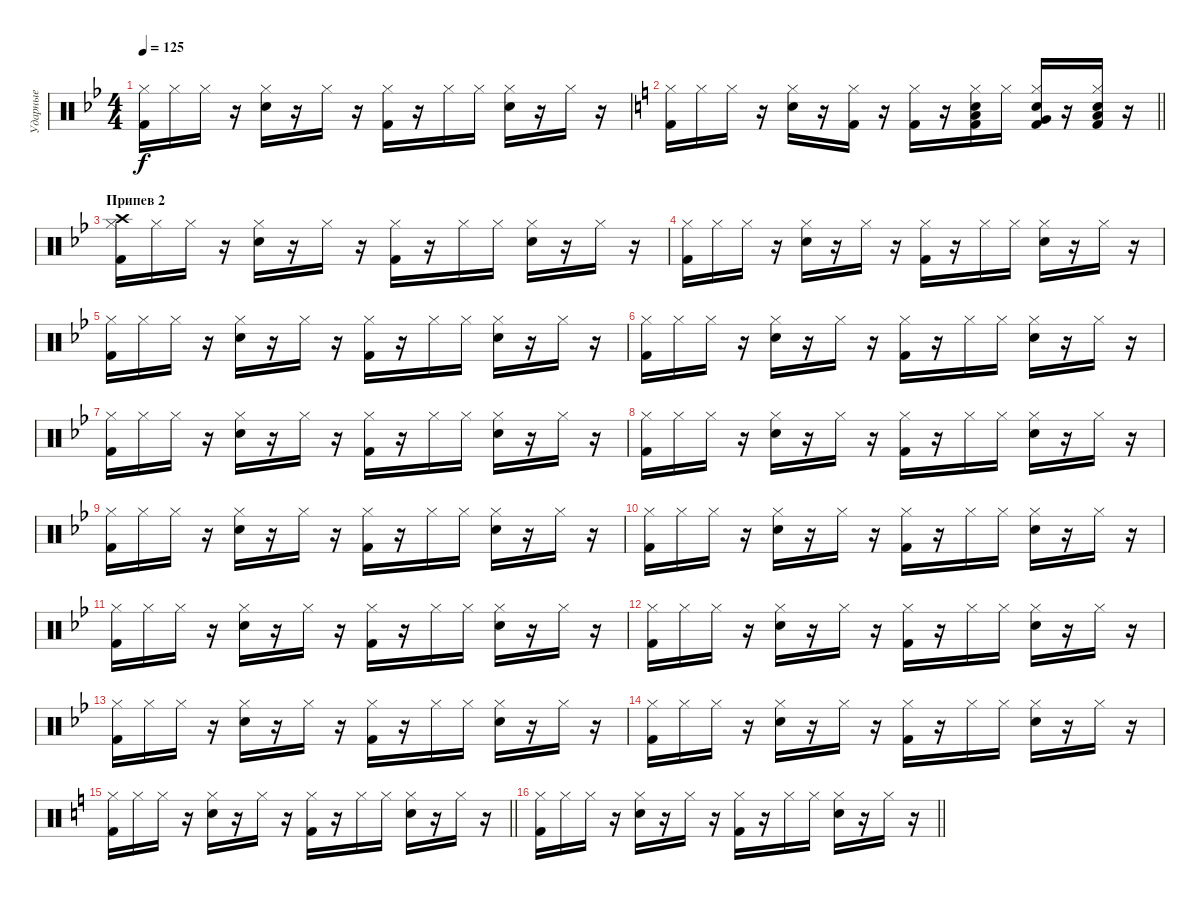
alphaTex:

\track ("Ударные" "Ударные") {instrument percussion}
\staff {score}
\articulation defaults
\ts (4 4)
\tempo 125
\clef neutral
\ks bb
("Kick (hit) 2" "Hi-Hat (closed)").16{dy f} "Hi-Hat (closed)".16 "Hi-Hat (closed)".16 r.16 ("Snare (hit) 2" "Hi-Hat (closed)").16 r.16 "Hi-Hat (closed)".16 r.16 ("Kick (hit) 2" "Hi-Hat (closed)").16 r.16 "Hi-Hat (closed)".16 "Hi-Hat (closed)".16 ("Snare (hit) 2" "Hi-Hat (closed)").16 r.16 "Hi-Hat (closed)".16 r.16 |
\barLineRight lightlight
\ks c
("Kick (hit) 2" "Hi-Hat (closed)").16 "Hi-Hat (closed)".16 "Hi-Hat (closed)".16 r.16 ("Snare (hit) 2" "Hi-Hat (closed)").16 r.16 ("Kick (hit) 2" "Hi-Hat (closed)").16 r.16 ("Kick (hit) 2" "Hi-Hat (closed)").16 r.16 ("Kick (hit) 2" "Snare (hit) 2" "Low Floor Tom (hit)" "Hi-Hat (closed)").16 "Hi-Hat (closed)".16 ("Kick (hit) 2" "Snare (hit) 2" "Very Low Tom (hit)" "Hi-Hat (closed)").16 r.16 ("Kick (hit) 2" "Snare (hit) 2" "Low Tom (hit)" "Hi-Hat (closed)").16 r.16 |
\section ("" "Припев 2")
\ks bb
("Kick (hit) 2" "Crash high (hit)" "Hi-Hat (closed)").16 "Hi-Hat (closed)".16 "Hi-Hat (closed)".16 r.16 ("Snare (hit) 2" "Hi-Hat (closed)").16 r.16 "Hi-Hat (closed)".16 r.16 ("Kick (hit) 2" "Hi-Hat (closed)").16 r.16 "Hi-Hat (closed)".16 "Hi-Hat (closed)".16 ("Snare (hit) 2" "Hi-Hat (closed)").16 r.16 "Hi-Hat (closed)".16 r.16 |
("Kick (hit) 2" "Hi-Hat (closed)").16 "Hi-Hat (closed)".16 "Hi-Hat (closed)".16 r.16 ("Snare (hit) 2" "Hi-Hat (closed)").16 r.16 "Hi-Hat (closed)".16 r.16 ("Kick (hit) 2" "Hi-Hat (closed)").16 r.16 "Hi-Hat (closed)".16 "Hi-Hat (closed)".16 ("Snare (hit) 2" "Hi-Hat (closed)").16 r.16 "Hi-Hat (closed)".16 r.16 |
("Kick (hit) 2" "Hi-Hat (closed)").16 "Hi-Hat (closed)".16 "Hi-Hat (closed)".16 r.16 ("Snare (hit) 2" "Hi-Hat (closed)").16 r.16 "Hi-Hat (closed)".16 r.16 ("Kick (hit) 2" "Hi-Hat (closed)").16 r.16 "Hi-Hat (closed)".16 "Hi-Hat (closed)".16 ("Snare (hit) 2" "Hi-Hat (closed)").16 r.16 "Hi-Hat (closed)".16 r.16 |
("Kick (hit) 2" "Hi-Hat (closed)").16 "Hi-Hat (closed)".16 "Hi-Hat (closed)".16 r.16 ("Snare (hit) 2" "Hi-Hat (closed)").16 r.16 "Hi-Hat (closed)".16 r.16 ("Kick (hit) 2" "Hi-Hat (closed)").16 r.16 "Hi-Hat (closed)".16 "Hi-Hat (closed)".16 ("Snare (hit) 2" "Hi-Hat (closed)").16 r.16 "Hi-Hat (closed)".16 r.16 |
("Kick (hit) 2" "Hi-Hat (closed)").16 "Hi-Hat (closed)".16 "Hi-Hat (closed)".16 r.16 ("Snare (hit) 2" "Hi-Hat (closed)").16 r.16 "Hi-Hat (closed)".16 r.16 ("Kick (hit) 2" "Hi-Hat (closed)").16 r.16 "Hi-Hat (closed)".16 "Hi-Hat (closed)".16 ("Snare (hit) 2" "Hi-Hat (closed)").16 r.16 "Hi-Hat (closed)".16 r.16 |
("Kick (hit) 2" "Hi-Hat (closed)").16 "Hi-Hat (closed)".16 "Hi-Hat (closed)".16 r.16 ("Snare (hit) 2" "Hi-Hat (closed)").16 r.16 "Hi-Hat (closed)".16 r.16 ("Kick (hit) 2" "Hi-Hat (closed)").16 r.16 "Hi-Hat (closed)".16 "Hi-Hat (closed)".16 ("Snare (hit) 2" "Hi-Hat (closed)").16 r.16 "Hi-Hat (closed)".16 r.16 |
("Kick (hit) 2" "Hi-Hat (closed)").16 "Hi-Hat (closed)".16 "Hi-Hat (closed)".16 r.16 ("Snare (hit) 2" "Hi-Hat (closed)").16 r.16 "Hi-Hat (closed)".16 r.16 ("Kick (hit) 2" "Hi-Hat (closed)").16 r.16 "Hi-Hat (closed)".16 "Hi-Hat (closed)".16 ("Snare (hit) 2" "Hi-Hat (closed)").16 r.16 "Hi-Hat (closed)".16 r.16 |
("Kick (hit) 2" "Hi-Hat (closed)").16 "Hi-Hat (closed)".16 "Hi-Hat (closed)".16 r.16 ("Snare (hit) 2" "Hi-Hat (closed)").16 r.16 "Hi-Hat (closed)".16 r.16 ("Kick (hit) 2" "Hi-Hat (closed)").16 r.16 "Hi-Hat (closed)".16 "Hi-Hat (closed)".16 ("Snare (hit) 2" "Hi-Hat (closed)").16 r.16 "Hi-Hat (closed)".16 r.16 |
("Kick (hit) 2" "Hi-Hat (closed)").16 "Hi-Hat (closed)".16 "Hi-Hat (closed)".16 r.16 ("Snare (hit) 2" "Hi-Hat (closed)").16 r.16 "Hi-Hat (closed)".16 r.16 ("Kick (hit) 2" "Hi-Hat (closed)").16 r.16 "Hi-Hat (closed)".16 "Hi-Hat (closed)".16 ("Snare (hit) 2" "Hi-Hat (closed)").16 r.16 "Hi-Hat (closed)".16 r.16 |
("Kick (hit) 2" "Hi-Hat (closed)").16 "Hi-Hat (closed)".16 "Hi-Hat (closed)".16 r.16 ("Snare (hit) 2" "Hi-Hat (closed)").16 r.16 "Hi-Hat (closed)".16 r.16 ("Kick (hit) 2" "Hi-Hat (closed)").16 r.16 "Hi-Hat (closed)".16 "Hi-Hat (closed)".16 ("Snare (hit) 2" "Hi-Hat (closed)").16 r.16 "Hi-Hat (closed)".16 r.16 |
("Kick (hit) 2" "Hi-Hat (closed)").16 "Hi-Hat (closed)".16 "Hi-Hat (closed)".16 r.16 ("Snare (hit) 2" "Hi-Hat (closed)").16 r.16 "Hi-Hat (closed)".16 r.16 ("Kick (hit) 2" "Hi-Hat (closed)").16 r.16 "Hi-Hat (closed)".16 "Hi-Hat (closed)".16 ("Snare (hit) 2" "Hi-Hat (closed)").16 r.16 "Hi-Hat (closed)".16 r.16 |
("Kick (hit) 2" "Hi-Hat (closed)").16 "Hi-Hat (closed)".16 "Hi-Hat (closed)".16 r.16 ("Snare (hit) 2" "Hi-Hat (closed)").16 r.16 "Hi-Hat (closed)".16 r.16 ("Kick (hit) 2" "Hi-Hat (closed)").16 r.16 "Hi-Hat (closed)".16 "Hi-Hat (closed)".16 ("Snare (hit) 2" "Hi-Hat (closed)").16 r.16 "Hi-Hat (closed)".16 r.16 |
\barLineRight lightlight
\ks c
("Kick (hit) 2" "Hi-Hat (closed)").16 "Hi-Hat (closed)".16 "Hi-Hat (closed)".16 r.16 ("Snare (hit) 2" "Hi-Hat (closed)").16 r.16 "Hi-Hat (closed)".16 r.16 ("Kick (hit) 2" "Hi-Hat (closed)").16 r.16 "Hi-Hat (closed)".16 "Hi-Hat (closed)".16 ("Snare (hit) 2" "Hi-Hat (closed)").16 r.16 "Hi-Hat (closed)".16 r.16 |
\barLineRight lightlight
("Kick (hit) 2" "Hi-Hat (closed)").16 "Hi-Hat (closed)".16 "Hi-Hat (closed)".16 r.16 ("Snare (hit) 2" "Hi-Hat (closed)").16 r.16 "Hi-Hat (closed)".16 r.16 ("Kick (hit) 2" "Hi-Hat (closed)").16 r.16 "Hi-Hat (closed)".16 "Hi-Hat (closed)".16 ("Snare (hit) 2" "Hi-Hat (closed)").16 r.16 "Hi-Hat (closed)".16 r.16
